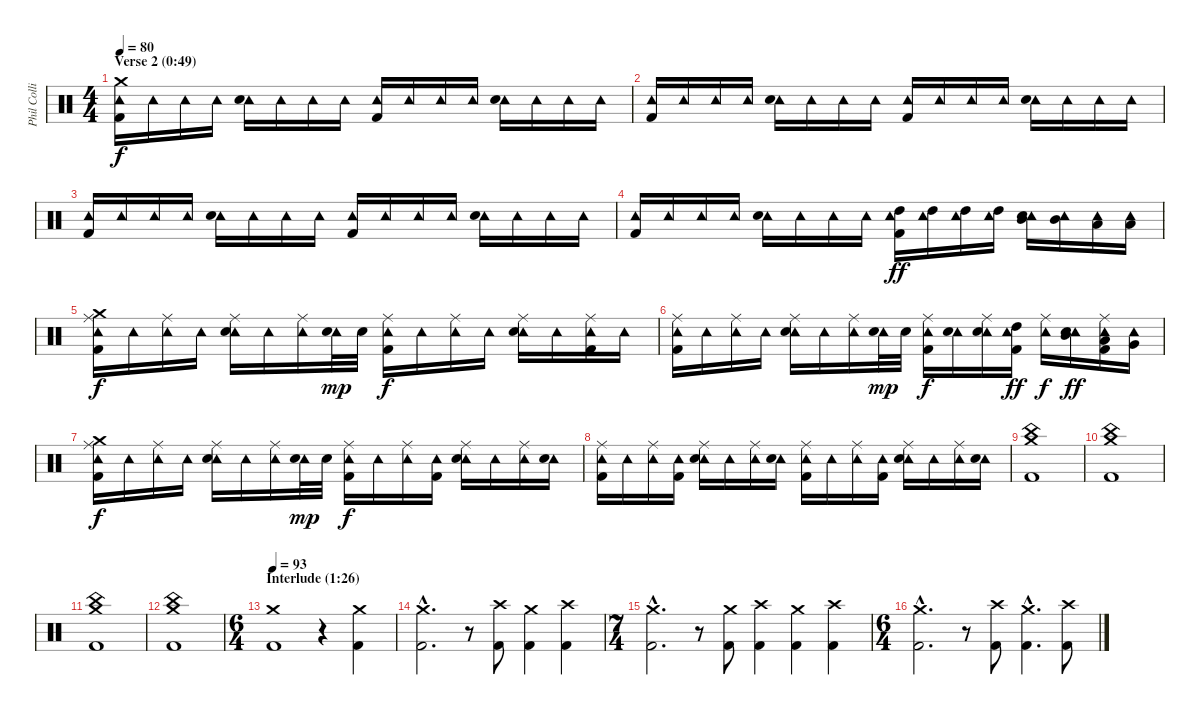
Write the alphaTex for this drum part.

\track ("Phil Collins (drums)" "Phil Colli") {instrument percussion}
\staff {score}
\articulation defaults
\ts (4 4)
\section ("" "Verse 2 (0:49)")
\tempo 80
\clef neutral
\ks c
("Crash medium (hit)" "Tambourine (hit)" "Kick (hit) 2").16{dy f} "Tambourine (hit)".16 "Tambourine (hit)".16 "Tambourine (hit)".16 ("Tambourine (hit)" "Electric Snare (hit)").16 "Tambourine (hit)".16 "Tambourine (hit)".16 "Tambourine (hit)".16 ("Tambourine (hit)" "Kick (hit) 2").16 "Tambourine (hit)".16 "Tambourine (hit)".16 "Tambourine (hit)".16 ("Tambourine (hit)" "Electric Snare (hit)").16 "Tambourine (hit)".16 "Tambourine (hit)".16 "Tambourine (hit)".16 |
("Tambourine (hit)" "Kick (hit) 2").16 "Tambourine (hit)".16 "Tambourine (hit)".16 "Tambourine (hit)".16 ("Tambourine (hit)" "Electric Snare (hit)").16 "Tambourine (hit)".16 "Tambourine (hit)".16 "Tambourine (hit)".16 ("Tambourine (hit)" "Kick (hit) 2").16 "Tambourine (hit)".16 "Tambourine (hit)".16 "Tambourine (hit)".16 ("Tambourine (hit)" "Electric Snare (hit)").16 "Tambourine (hit)".16 "Tambourine (hit)".16 "Tambourine (hit)".16 |
("Tambourine (hit)" "Kick (hit) 2").16 "Tambourine (hit)".16 "Tambourine (hit)".16 "Tambourine (hit)".16 ("Tambourine (hit)" "Electric Snare (hit)").16 "Tambourine (hit)".16 "Tambourine (hit)".16 "Tambourine (hit)".16 ("Tambourine (hit)" "Kick (hit) 2").16 "Tambourine (hit)".16 "Tambourine (hit)".16 "Tambourine (hit)".16 ("Tambourine (hit)" "Electric Snare (hit)").16 "Tambourine (hit)".16 "Tambourine (hit)".16 "Tambourine (hit)".16 |
("Tambourine (hit)" "Kick (hit) 2").16 "Tambourine (hit)".16 "Tambourine (hit)".16 "Tambourine (hit)".16 ("Tambourine (hit)" "Electric Snare (hit)").16 "Tambourine (hit)".16 "Tambourine (hit)".16 "Tambourine (hit)".16 ("High Tom (hit)" "Tambourine (hit)" "Kick (hit) 2").16{dy ff} ("High Tom (hit)" "Tambourine (hit)").16 ("High Tom (hit)" "Tambourine (hit)").16 ("High Tom (hit)" "Tambourine (hit)").16 ("Mid Tom (hit)" "Tambourine (hit)" "Electric Snare (hit)").16 ("Mid Tom (hit)" "Tambourine (hit)").16 ("Low Tom (hit)" "Tambourine (hit)").16 ("Low Tom (hit)" "Tambourine (hit)").16 |
("Crash medium (hit)" "Ride (middle)" "Tambourine (hit)" "Kick (hit) 2").16{dy f} "Tambourine (hit)".16 ("Ride (middle)" "Tambourine (hit)").16 "Tambourine (hit)".16 ("Ride (middle)" "Tambourine (hit)" "Electric Snare (hit)").16 "Tambourine (hit)".16 ("Ride (middle)" "Tambourine (hit)").16 ("Tambourine (hit)" "Electric Snare (hit)").32{dy mp} "Electric Snare (hit)".32 ("Ride (middle)" "Tambourine (hit)" "Kick (hit) 2").16{dy f} "Tambourine (hit)".16 ("Ride (middle)" "Tambourine (hit)").16 "Tambourine (hit)".16 ("Ride (middle)" "Tambourine (hit)" "Electric Snare (hit)").16 "Tambourine (hit)".16 ("Ride (middle)" "Tambourine (hit)" "Kick (hit) 2").16 "Tambourine (hit)".16 |
("Ride (middle)" "Tambourine (hit)" "Kick (hit) 2").16 "Tambourine (hit)".16 ("Ride (middle)" "Tambourine (hit)").16 "Tambourine (hit)".16 ("Ride (middle)" "Tambourine (hit)" "Electric Snare (hit)").16 "Tambourine (hit)".16 ("Ride (middle)" "Tambourine (hit)").16 ("Tambourine (hit)" "Electric Snare (hit)").32{dy mp} "Electric Snare (hit)".32 ("Ride (middle)" "Tambourine (hit)" "Kick (hit) 2").16{dy f} ("Tambourine (hit)" "Electric Snare (hit)").16 ("Ride (middle)" "Tambourine (hit)" "Electric Snare (hit)").16 ("High Tom (hit)" "Tambourine (hit)" "Kick (hit) 2").16{dy ff} ("Ride (middle)" "Tambourine (hit)").16{dy f} ("Mid Tom (hit)" "Tambourine (hit)" "Electric Snare (hit)").16{dy ff} ("Low Tom (hit)" "Ride (middle)" "Tambourine (hit)" "Kick (hit) 2").16 ("Very Low Tom (hit)" "Tambourine (hit)").16 |
("Crash medium (hit)" "Ride (middle)" "Tambourine (hit)" "Kick (hit) 2").16{dy f} "Tambourine (hit)".16 ("Ride (middle)" "Tambourine (hit)").16 "Tambourine (hit)".16 ("Ride (middle)" "Tambourine (hit)" "Electric Snare (hit)").16 "Tambourine (hit)".16 ("Ride (middle)" "Tambourine (hit)").16 ("Tambourine (hit)" "Electric Snare (hit)").32{dy mp} "Electric Snare (hit)".32 ("Ride (middle)" "Tambourine (hit)" "Kick (hit) 2").16{dy f} "Tambourine (hit)".16 ("Ride (middle)" "Tambourine (hit)").16 ("Tambourine (hit)" "Kick (hit) 2").16 ("Ride (middle)" "Tambourine (hit)" "Electric Snare (hit)").16 "Tambourine (hit)".16 ("Ride (middle)" "Tambourine (hit)").16 ("Tambourine (hit)" "Electric Snare (hit)").16 |
("Ride (middle)" "Tambourine (hit)" "Kick (hit) 2").16 "Tambourine (hit)".16 ("Ride (middle)" "Tambourine (hit)").16 ("Tambourine (hit)" "Kick (hit) 2").16 ("Ride (middle)" "Tambourine (hit)" "Electric Snare (hit)").16 "Tambourine (hit)".16 ("Ride (middle)" "Tambourine (hit)").16 ("Tambourine (hit)" "Electric Snare (hit)").16 ("Ride (middle)" "Tambourine (hit)" "Kick (hit) 2").16 "Tambourine (hit)".16 ("Ride (middle)" "Tambourine (hit)").16 ("Tambourine (hit)" "Kick (hit) 2").16 ("Ride (middle)" "Tambourine (hit)" "Electric Snare (hit)").16 "Tambourine (hit)".16 ("Ride (middle)" "Tambourine (hit)").16 ("Tambourine (hit)" "Electric Snare (hit)").16 |
("China (hit)" "Crash medium (hit)" "Kick (hit) 2").1 |
("China (hit)" "Crash medium (hit)" "Kick (hit) 2").1 |
("China (hit)" "Crash medium (hit)" "Kick (hit) 2").1 |
("China (hit)" "Crash medium (hit)" "Kick (hit) 2").1 |
\ts (6 4)
\section ("" "Interlude (1:26)")
\tempo 93
("Crash medium (hit)" "Kick (hit) 2").1{volume 12} r.4 ("Crash medium (hit)" "Kick (hit) 2").4 |
("Crash medium (hit)"{hac} "Kick (hit) 2"{hac}).2{d} r.8 ("Crash high (hit)" "Kick (hit) 2").8 ("Crash medium (hit)" "Kick (hit) 2").4 ("Crash high (hit)" "Kick (hit) 2").4 |
\ts (7 4)
("Crash medium (hit)"{hac} "Kick (hit) 2"{hac}).2{d} r.8 ("Crash medium (hit)" "Kick (hit) 2").8 ("Crash high (hit)" "Kick (hit) 2").4 ("Crash medium (hit)" "Kick (hit) 2").4 ("Crash high (hit)" "Kick (hit) 2").4 |
\ts (6 4)
("Crash medium (hit)"{hac} "Kick (hit) 2"{hac}).2{d} r.8 ("Crash high (hit)" "Kick (hit) 2").8 ("Crash medium (hit)"{hac} "Kick (hit) 2"{hac}).4{d} ("Crash high (hit)" "Kick (hit) 2").8
